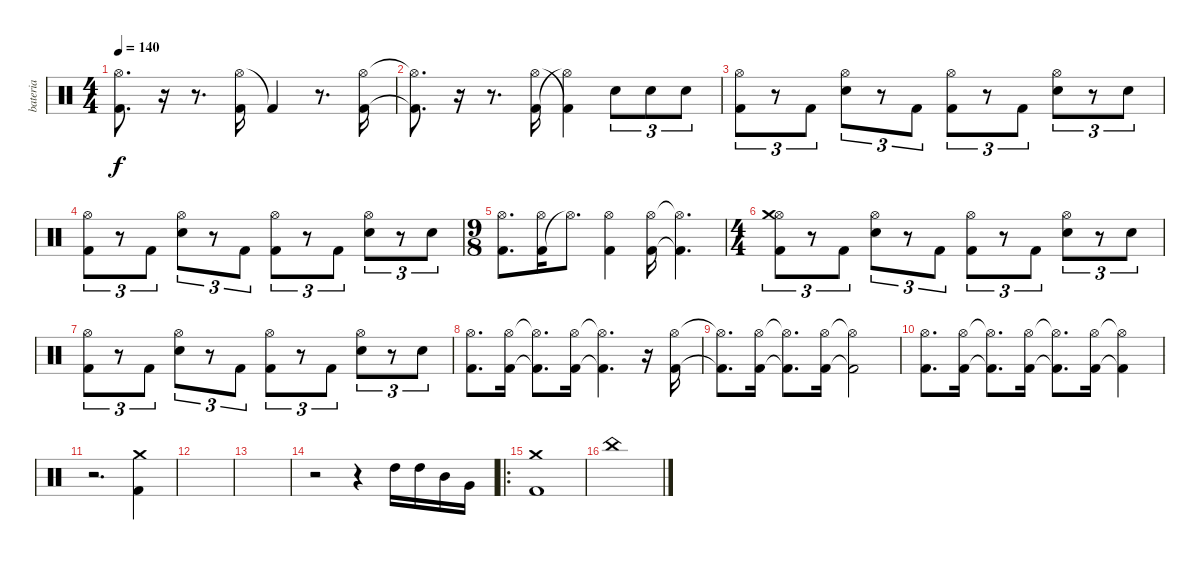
\track ("bateria" "bateria") {instrument percussion}
\staff {score}
\articulation defaults
\ts (4 4)
\tempo 140
\clef neutral
\ks c
("Kick (hit) 2" "Hi-Hat (open)").8{d dy f} r.16 r.8{d} ("Hi-Hat (open)" "Kick (hit) 2").16 "Kick (hit) 2"{t}.4 r.8{d} ("Kick (hit) 2" "Hi-Hat (open)").16 |
("Kick (hit) 2"{t} "Hi-Hat (open)"{t}).8{d} r.16 r.8{d} ("Kick (hit) 2" "Hi-Hat (open)").16 ("Hi-Hat (open)"{t} "Kick (hit) 2"{t}).4 "Electric Snare (hit)".8{tu (3 2)} "Electric Snare (hit)".8{tu (3 2)} "Electric Snare (hit)".8{tu (3 2)} |
("Hi-Hat (open)" "Kick (hit) 2").8{tu (3 2)} r.8{tu (3 2)} "Kick (hit) 2".8{tu (3 2)} ("Electric Snare (hit)" "Hi-Hat (open)").8{tu (3 2)} r.8{tu (3 2)} "Kick (hit) 2".8{tu (3 2)} ("Kick (hit) 2" "Hi-Hat (open)").8{tu (3 2)} r.8{tu (3 2)} "Kick (hit) 2".8{tu (3 2)} ("Electric Snare (hit)" "Hi-Hat (open)").8{tu (3 2)} r.8{tu (3 2)} "Electric Snare (hit)".8{tu (3 2)} |
("Hi-Hat (open)" "Kick (hit) 2").8{tu (3 2)} r.8{tu (3 2)} "Kick (hit) 2".8{tu (3 2)} ("Electric Snare (hit)" "Hi-Hat (open)").8{tu (3 2)} r.8{tu (3 2)} "Kick (hit) 2".8{tu (3 2)} ("Kick (hit) 2" "Hi-Hat (open)").8{tu (3 2)} r.8{tu (3 2)} "Kick (hit) 2".8{tu (3 2)} ("Electric Snare (hit)" "Hi-Hat (open)").8{tu (3 2)} r.8{tu (3 2)} "Electric Snare (hit)".8{tu (3 2)} |
\ts (9 8)
("Kick (hit) 2" "Hi-Hat (open)").8{d} ("Kick (hit) 2" "Hi-Hat (open)").16 "Hi-Hat (open)"{t}.8{d} ("Kick (hit) 2" "Hi-Hat (open)").4 ("Kick (hit) 2" "Hi-Hat (open)").16 ("Kick (hit) 2"{t} "Hi-Hat (open)"{t}).4{d} |
\ts (4 4)
("Hi-Hat (open)" "Kick (hit) 2" "Crash medium (hit)").8{tu (3 2)} r.8{tu (3 2)} "Kick (hit) 2".8{tu (3 2)} ("Electric Snare (hit)" "Hi-Hat (open)").8{tu (3 2)} r.8{tu (3 2)} "Kick (hit) 2".8{tu (3 2)} ("Kick (hit) 2" "Hi-Hat (open)").8{tu (3 2)} r.8{tu (3 2)} "Kick (hit) 2".8{tu (3 2)} ("Electric Snare (hit)" "Hi-Hat (open)").8{tu (3 2)} r.8{tu (3 2)} "Electric Snare (hit)".8{tu (3 2)} |
("Hi-Hat (open)" "Kick (hit) 2").8{tu (3 2)} r.8{tu (3 2)} "Kick (hit) 2".8{tu (3 2)} ("Electric Snare (hit)" "Hi-Hat (open)").8{tu (3 2)} r.8{tu (3 2)} "Kick (hit) 2".8{tu (3 2)} ("Kick (hit) 2" "Hi-Hat (open)").8{tu (3 2)} r.8{tu (3 2)} "Kick (hit) 2".8{tu (3 2)} ("Electric Snare (hit)" "Hi-Hat (open)").8{tu (3 2)} r.8{tu (3 2)} "Electric Snare (hit)".8{tu (3 2)} |
("Kick (hit) 2" "Hi-Hat (open)").8{d} ("Kick (hit) 2" "Hi-Hat (open)").16 ("Kick (hit) 2"{t} "Hi-Hat (open)"{t}).8{d} ("Kick (hit) 2" "Hi-Hat (open)").16 ("Kick (hit) 2"{t} "Hi-Hat (open)"{t}).4{d} r.16 ("Kick (hit) 2" "Hi-Hat (open)").16 |
("Kick (hit) 2"{t} "Hi-Hat (open)"{t}).8{d} ("Kick (hit) 2" "Hi-Hat (open)").16 ("Kick (hit) 2"{t} "Hi-Hat (open)"{t}).8{d} ("Kick (hit) 2" "Hi-Hat (open)").16 ("Kick (hit) 2"{t} "Hi-Hat (open)"{t}).2 |
("Kick (hit) 2" "Hi-Hat (open)").8{d} ("Kick (hit) 2" "Hi-Hat (open)").16 ("Kick (hit) 2"{t} "Hi-Hat (open)"{t}).8{d} ("Kick (hit) 2" "Hi-Hat (open)").16 ("Kick (hit) 2"{t} "Hi-Hat (open)"{t}).8{d} ("Kick (hit) 2" "Hi-Hat (open)").16 ("Kick (hit) 2"{t} "Hi-Hat (open)"{t}).4 |
r.2{d} ("Kick (hit) 2" "Crash medium (hit)").4 |
|
|
r.2 r.4 "High Tom (hit)".16 "High Tom (hit)".16 "Mid Tom (hit)".16 "Very Low Tom (hit)".16 |
\ro
("Kick (hit) 2" "Crash medium (hit)").1 |
"China (hit)".1
